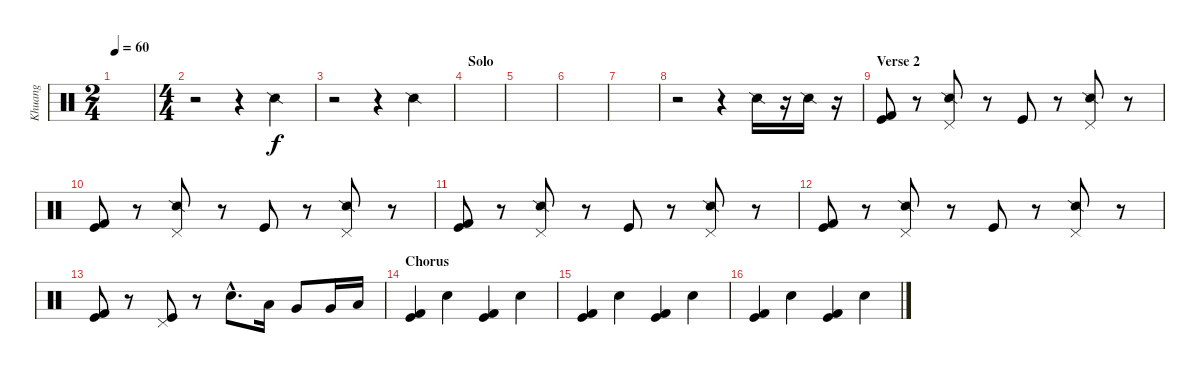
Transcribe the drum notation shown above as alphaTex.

\track ("Khuang" "Khuang") {instrument percussion}
\staff {score}
\articulation defaults
\ts (2 4)
\tempo 60
\clef neutral
\ks c
|
\ts (4 4)
r.2 r.4 "Snare (side stick) 2".4 |
r.2 r.4 "Snare (side stick) 2".4 |
\section ("" "Solo")
|
|
|
|
r.2 r.4 "Snare (side stick) 2".16 r.16 "Snare (side stick) 2".16 r.16 |
\section ("" "Verse 2")
("Kick (hit)" "Kick (hit) 2").8 r.8 ("Snare (side stick) 2" "Pedal Hi-Hat (hit)").8 r.8 "Kick (hit)".8 r.8 ("Snare (side stick) 2" "Pedal Hi-Hat (hit)").8 r.8 |
("Kick (hit)" "Kick (hit) 2").8 r.8 ("Snare (side stick) 2" "Pedal Hi-Hat (hit)").8 r.8 "Kick (hit)".8 r.8 ("Snare (side stick) 2" "Pedal Hi-Hat (hit)").8 r.8 |
("Kick (hit)" "Kick (hit) 2").8 r.8 ("Snare (side stick) 2" "Pedal Hi-Hat (hit)").8 r.8 "Kick (hit)".8 r.8 ("Snare (side stick) 2" "Pedal Hi-Hat (hit)").8 r.8 |
("Kick (hit)" "Kick (hit) 2").8 r.8 ("Snare (side stick) 2" "Pedal Hi-Hat (hit)").8 r.8 "Kick (hit)".8 r.8 ("Snare (side stick) 2" "Pedal Hi-Hat (hit)").8 r.8 |
("Kick (hit)" "Kick (hit) 2").8 r.8 ("Kick (hit)" "Pedal Hi-Hat (hit)").8 r.8 "Snare (hit) 2"{hac}.8{d} "Low Tom (hit)".16 "Very Low Tom (hit)".8 "Very Low Tom (hit)".16 "Low Floor Tom (hit)".16 |
\section ("" "Chorus")
("Kick (hit) 2" "Kick (hit)").4{volume 12} "Electric Snare (hit)".4 ("Kick (hit) 2" "Kick (hit)").4 "Electric Snare (hit)".4 |
("Kick (hit) 2" "Kick (hit)").4 "Electric Snare (hit)".4 ("Kick (hit) 2" "Kick (hit)").4 "Electric Snare (hit)".4 |
("Kick (hit)" "Kick (hit) 2").4 "Electric Snare (hit)".4 ("Kick (hit)" "Kick (hit) 2").4 "Electric Snare (hit)".4
